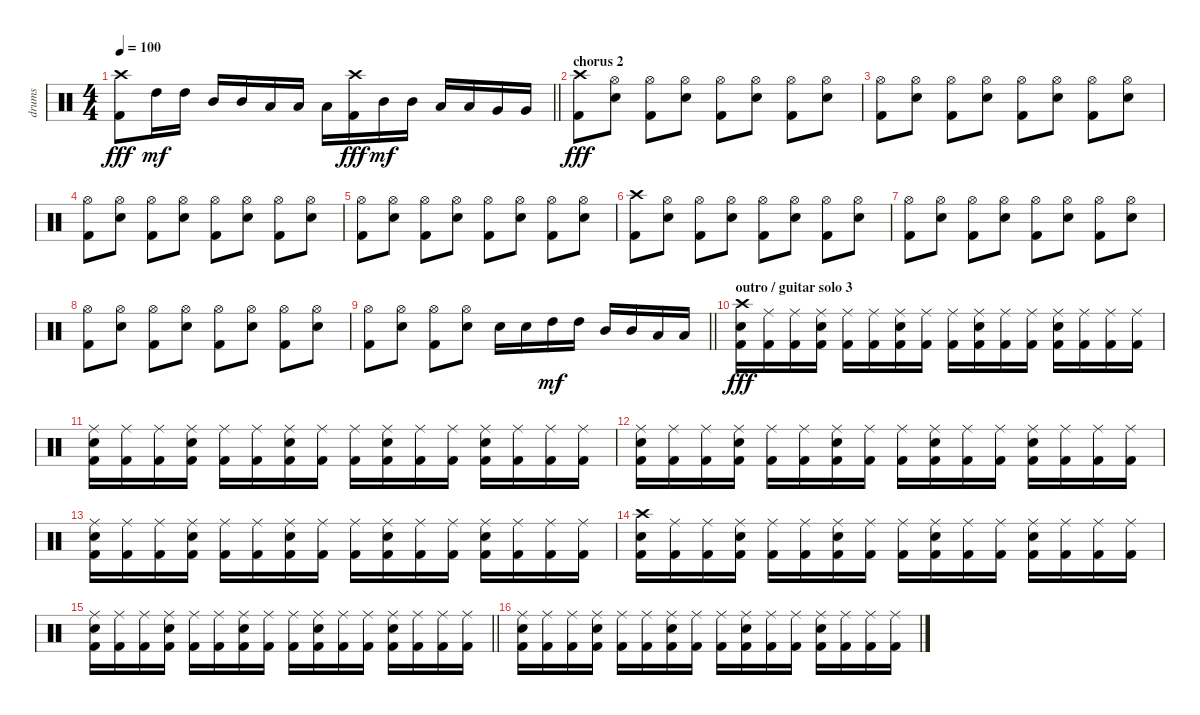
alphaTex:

\track ("drums" "drums") {instrument percussion}
\staff {score}
\articulation defaults
\ts (4 4)
\tempo 100
\clef neutral
\barLineRight lightlight
\ks c
("Crash high (hit)" "Kick (hit) 2").8{dy fff} "High Tom (hit)".16{dy mf} "High Tom (hit)".16 "Mid Tom (hit)".16 "Mid Tom (hit)".16 "Low Tom (hit)".16 "Low Tom (hit)".16 "Low Tom (hit)".16 ("Crash high (hit)" "Kick (hit) 2").16{dy fff} "Mid Tom (hit)".16{dy mf} "Mid Tom (hit)".16 "Low Tom (hit)".16 "Low Tom (hit)".16 "Very Low Tom (hit)".16 "Very Low Tom (hit)".16 |
\section ("" "chorus 2")
("Crash high (hit)" "Kick (hit) 2").8{dy fff} ("Hi-Hat (open)" "Snare (hit) 2").8 ("Hi-Hat (open)" "Kick (hit) 2").8 ("Hi-Hat (open)" "Snare (hit) 2").8 ("Hi-Hat (open)" "Kick (hit) 2").8 ("Hi-Hat (open)" "Snare (hit) 2").8 ("Hi-Hat (open)" "Kick (hit) 2").8 ("Hi-Hat (open)" "Snare (hit) 2").8 |
("Hi-Hat (open)" "Kick (hit) 2").8 ("Hi-Hat (open)" "Snare (hit) 2").8 ("Hi-Hat (open)" "Kick (hit) 2").8 ("Hi-Hat (open)" "Snare (hit) 2").8 ("Hi-Hat (open)" "Kick (hit) 2").8 ("Hi-Hat (open)" "Snare (hit) 2").8 ("Hi-Hat (open)" "Kick (hit) 2").8 ("Hi-Hat (open)" "Snare (hit) 2").8 |
("Hi-Hat (open)" "Kick (hit) 2").8 ("Hi-Hat (open)" "Snare (hit) 2").8 ("Hi-Hat (open)" "Kick (hit) 2").8 ("Hi-Hat (open)" "Snare (hit) 2").8 ("Hi-Hat (open)" "Kick (hit) 2").8 ("Hi-Hat (open)" "Snare (hit) 2").8 ("Hi-Hat (open)" "Kick (hit) 2").8 ("Hi-Hat (open)" "Snare (hit) 2").8 |
("Hi-Hat (open)" "Kick (hit) 2").8 ("Hi-Hat (open)" "Snare (hit) 2").8 ("Hi-Hat (open)" "Kick (hit) 2").8 ("Hi-Hat (open)" "Snare (hit) 2").8 ("Hi-Hat (open)" "Kick (hit) 2").8 ("Hi-Hat (open)" "Snare (hit) 2").8 ("Hi-Hat (open)" "Kick (hit) 2").8 ("Hi-Hat (open)" "Snare (hit) 2").8 |
("Crash high (hit)" "Kick (hit) 2").8 ("Hi-Hat (open)" "Snare (hit) 2").8 ("Hi-Hat (open)" "Kick (hit) 2").8 ("Hi-Hat (open)" "Snare (hit) 2").8 ("Hi-Hat (open)" "Kick (hit) 2").8 ("Hi-Hat (open)" "Snare (hit) 2").8 ("Hi-Hat (open)" "Kick (hit) 2").8 ("Hi-Hat (open)" "Snare (hit) 2").8 |
("Hi-Hat (open)" "Kick (hit) 2").8 ("Hi-Hat (open)" "Snare (hit) 2").8 ("Hi-Hat (open)" "Kick (hit) 2").8 ("Hi-Hat (open)" "Snare (hit) 2").8 ("Hi-Hat (open)" "Kick (hit) 2").8 ("Hi-Hat (open)" "Snare (hit) 2").8 ("Hi-Hat (open)" "Kick (hit) 2").8 ("Hi-Hat (open)" "Snare (hit) 2").8 |
("Hi-Hat (open)" "Kick (hit) 2").8 ("Hi-Hat (open)" "Snare (hit) 2").8 ("Hi-Hat (open)" "Kick (hit) 2").8 ("Hi-Hat (open)" "Snare (hit) 2").8 ("Hi-Hat (open)" "Kick (hit) 2").8 ("Hi-Hat (open)" "Snare (hit) 2").8 ("Hi-Hat (open)" "Kick (hit) 2").8 ("Hi-Hat (open)" "Snare (hit) 2").8 |
\barLineRight lightlight
("Hi-Hat (open)" "Kick (hit) 2").8 ("Hi-Hat (open)" "Snare (hit) 2").8 ("Hi-Hat (open)" "Kick (hit) 2").8 ("Hi-Hat (open)" "Snare (hit) 2").8 "Snare (hit) 2".16 "Snare (hit) 2".16 "High Tom (hit)".16{dy mf} "High Tom (hit)".16 "Mid Tom (hit)".16 "Mid Tom (hit)".16 "Low Tom (hit)".16 "Low Tom (hit)".16 |
\section ("" "outro / guitar solo 3")
("Crash high (hit)" "Snare (hit) 2" "Kick (hit) 2").16{dy fff} ("Ride (middle)" "Kick (hit) 2").16 ("Ride (middle)" "Kick (hit) 2").16 ("Ride (middle)" "Snare (hit) 2" "Kick (hit) 2").16 ("Ride (middle)" "Kick (hit) 2").16 ("Ride (middle)" "Kick (hit) 2").16 ("Ride (middle)" "Snare (hit) 2" "Kick (hit) 2").16 ("Ride (middle)" "Kick (hit) 2").16 ("Ride (middle)" "Kick (hit) 2").16 ("Ride (middle)" "Snare (hit) 2" "Kick (hit) 2").16 ("Ride (middle)" "Kick (hit) 2").16 ("Ride (middle)" "Kick (hit) 2").16 ("Ride (middle)" "Snare (hit) 2" "Kick (hit) 2").16 ("Ride (middle)" "Kick (hit) 2").16 ("Ride (middle)" "Kick (hit) 2").16 ("Ride (middle)" "Kick (hit) 2").16 |
("Ride (middle)" "Snare (hit) 2" "Kick (hit) 2").16 ("Ride (middle)" "Kick (hit) 2").16 ("Ride (middle)" "Kick (hit) 2").16 ("Ride (middle)" "Snare (hit) 2" "Kick (hit) 2").16 ("Ride (middle)" "Kick (hit) 2").16 ("Ride (middle)" "Kick (hit) 2").16 ("Ride (middle)" "Snare (hit) 2" "Kick (hit) 2").16 ("Ride (middle)" "Kick (hit) 2").16 ("Ride (middle)" "Kick (hit) 2").16 ("Ride (middle)" "Snare (hit) 2" "Kick (hit) 2").16 ("Ride (middle)" "Kick (hit) 2").16 ("Ride (middle)" "Kick (hit) 2").16 ("Ride (middle)" "Snare (hit) 2" "Kick (hit) 2").16 ("Ride (middle)" "Kick (hit) 2").16 ("Ride (middle)" "Kick (hit) 2").16 ("Ride (middle)" "Kick (hit) 2").16 |
("Ride (middle)" "Snare (hit) 2" "Kick (hit) 2").16 ("Ride (middle)" "Kick (hit) 2").16 ("Ride (middle)" "Kick (hit) 2").16 ("Ride (middle)" "Snare (hit) 2" "Kick (hit) 2").16 ("Ride (middle)" "Kick (hit) 2").16 ("Ride (middle)" "Kick (hit) 2").16 ("Ride (middle)" "Snare (hit) 2" "Kick (hit) 2").16 ("Ride (middle)" "Kick (hit) 2").16 ("Ride (middle)" "Kick (hit) 2").16 ("Ride (middle)" "Snare (hit) 2" "Kick (hit) 2").16 ("Ride (middle)" "Kick (hit) 2").16 ("Ride (middle)" "Kick (hit) 2").16 ("Ride (middle)" "Snare (hit) 2" "Kick (hit) 2").16 ("Ride (middle)" "Kick (hit) 2").16 ("Ride (middle)" "Kick (hit) 2").16 ("Ride (middle)" "Kick (hit) 2").16 |
("Ride (middle)" "Snare (hit) 2" "Kick (hit) 2").16 ("Ride (middle)" "Kick (hit) 2").16 ("Ride (middle)" "Kick (hit) 2").16 ("Ride (middle)" "Snare (hit) 2" "Kick (hit) 2").16 ("Ride (middle)" "Kick (hit) 2").16 ("Ride (middle)" "Kick (hit) 2").16 ("Ride (middle)" "Snare (hit) 2" "Kick (hit) 2").16 ("Ride (middle)" "Kick (hit) 2").16 ("Ride (middle)" "Kick (hit) 2").16 ("Ride (middle)" "Snare (hit) 2" "Kick (hit) 2").16 ("Ride (middle)" "Kick (hit) 2").16 ("Ride (middle)" "Kick (hit) 2").16 ("Ride (middle)" "Snare (hit) 2" "Kick (hit) 2").16 ("Ride (middle)" "Kick (hit) 2").16 ("Ride (middle)" "Kick (hit) 2").16 ("Ride (middle)" "Kick (hit) 2").16 |
("Crash high (hit)" "Snare (hit) 2" "Kick (hit) 2").16 ("Ride (middle)" "Kick (hit) 2").16 ("Ride (middle)" "Kick (hit) 2").16 ("Ride (middle)" "Snare (hit) 2" "Kick (hit) 2").16 ("Ride (middle)" "Kick (hit) 2").16 ("Ride (middle)" "Kick (hit) 2").16 ("Ride (middle)" "Snare (hit) 2" "Kick (hit) 2").16 ("Ride (middle)" "Kick (hit) 2").16 ("Ride (middle)" "Kick (hit) 2").16 ("Ride (middle)" "Snare (hit) 2" "Kick (hit) 2").16 ("Ride (middle)" "Kick (hit) 2").16 ("Ride (middle)" "Kick (hit) 2").16 ("Ride (middle)" "Snare (hit) 2" "Kick (hit) 2").16 ("Ride (middle)" "Kick (hit) 2").16 ("Ride (middle)" "Kick (hit) 2").16 ("Ride (middle)" "Kick (hit) 2").16 |
\barLineRight lightlight
("Ride (middle)" "Snare (hit) 2" "Kick (hit) 2").16 ("Ride (middle)" "Kick (hit) 2").16 ("Ride (middle)" "Kick (hit) 2").16 ("Ride (middle)" "Snare (hit) 2" "Kick (hit) 2").16 ("Ride (middle)" "Kick (hit) 2").16 ("Ride (middle)" "Kick (hit) 2").16 ("Ride (middle)" "Snare (hit) 2" "Kick (hit) 2").16 ("Ride (middle)" "Kick (hit) 2").16 ("Ride (middle)" "Kick (hit) 2").16 ("Ride (middle)" "Snare (hit) 2" "Kick (hit) 2").16 ("Ride (middle)" "Kick (hit) 2").16 ("Ride (middle)" "Kick (hit) 2").16 ("Ride (middle)" "Snare (hit) 2" "Kick (hit) 2").16 ("Ride (middle)" "Kick (hit) 2").16 ("Ride (middle)" "Kick (hit) 2").16 ("Ride (middle)" "Kick (hit) 2").16 |
("Ride (middle)" "Snare (hit) 2" "Kick (hit) 2").16 ("Ride (middle)" "Kick (hit) 2").16 ("Ride (middle)" "Kick (hit) 2").16 ("Ride (middle)" "Snare (hit) 2" "Kick (hit) 2").16 ("Ride (middle)" "Kick (hit) 2").16 ("Ride (middle)" "Kick (hit) 2").16 ("Ride (middle)" "Snare (hit) 2" "Kick (hit) 2").16 ("Ride (middle)" "Kick (hit) 2").16 ("Ride (middle)" "Kick (hit) 2").16 ("Ride (middle)" "Snare (hit) 2" "Kick (hit) 2").16 ("Ride (middle)" "Kick (hit) 2").16 ("Ride (middle)" "Kick (hit) 2").16 ("Ride (middle)" "Snare (hit) 2" "Kick (hit) 2").16 ("Ride (middle)" "Kick (hit) 2").16 ("Ride (middle)" "Kick (hit) 2").16 ("Ride (middle)" "Kick (hit) 2").16
